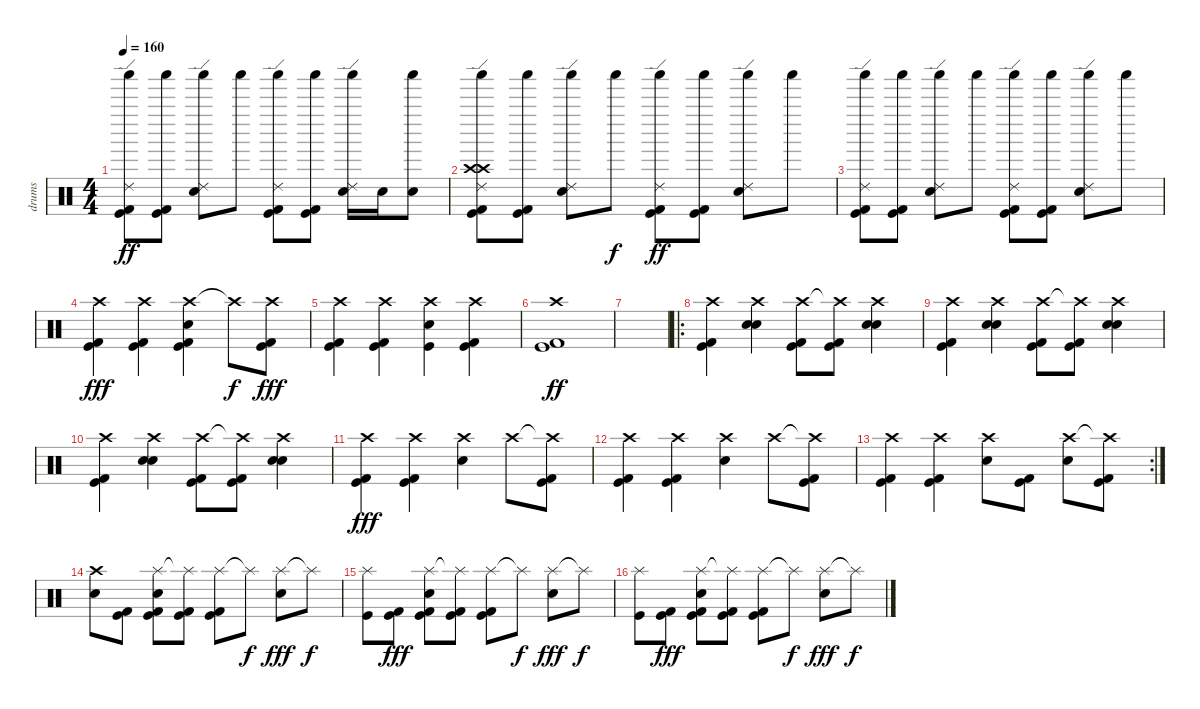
\track ("drums" "drums") {instrument percussion}
\staff {score}
\articulation defaults
\ts (4 4)
\tempo 160
\clef neutral
\ks c
("Shaker (hit)" "Kick (hit) 2" "Ride (edge) 2" "Kick (hit)").8{dy ff} ("Shaker (hit)" "Kick (hit) 2" "Kick (hit)").8 ("Shaker (hit)" "Ride (edge) 2" "Electric Snare (hit)").8 "Shaker (hit)".8 ("Shaker (hit)" "Kick (hit) 2" "Ride (edge) 2" "Kick (hit)").8 ("Shaker (hit)" "Kick (hit) 2" "Kick (hit)").8 ("Shaker (hit)" "Ride (edge) 2" "Electric Snare (hit)").16 "Electric Snare (hit)".16 ("Shaker (hit)" "Electric Snare (hit)").8 |
("Crash high (hit)" "Shaker (hit)" "Kick (hit) 2" "Ride (edge) 2" "Crash high (hit)" "Kick (hit)").8 ("Shaker (hit)" "Kick (hit) 2" "Kick (hit)").8 ("Shaker (hit)" "Ride (edge) 2" "Electric Snare (hit)").8 "Shaker (hit)".8{dy f} ("Shaker (hit)" "Kick (hit) 2" "Ride (edge) 2" "Kick (hit)").8{dy ff} ("Shaker (hit)" "Kick (hit) 2" "Kick (hit)").8 ("Shaker (hit)" "Ride (edge) 2" "Electric Snare (hit)").8 "Shaker (hit)".8 |
("Shaker (hit)" "Kick (hit) 2" "Ride (edge) 2" "Kick (hit)").8 ("Shaker (hit)" "Kick (hit) 2" "Kick (hit)").8 ("Shaker (hit)" "Ride (edge) 2" "Electric Snare (hit)").8 "Shaker (hit)".8 ("Shaker (hit)" "Kick (hit) 2" "Ride (edge) 2" "Kick (hit)").8 ("Shaker (hit)" "Kick (hit) 2" "Kick (hit)").8 ("Shaker (hit)" "Ride (edge) 2" "Electric Snare (hit)").8 "Shaker (hit)".8 |
("Crash high (hit)" "Kick (hit) 2" "Kick (hit)").4{dy fff} ("Crash high (hit)" "Kick (hit) 2" "Kick (hit)").4 ("Crash high (hit)" "Electric Snare (hit)" "Kick (hit) 2" "Kick (hit)").4 "Crash high (hit)"{t}.8{dy f} ("Crash high (hit)" "Kick (hit) 2" "Kick (hit)").8{dy fff} |
("Crash high (hit)" "Kick (hit) 2" "Kick (hit)").4 ("Crash high (hit)" "Kick (hit) 2" "Kick (hit)").4 ("Crash high (hit)" "Electric Snare (hit)" "Kick (hit)").4 ("Crash high (hit)" "Kick (hit) 2" "Kick (hit)").4 |
("Crash high (hit)" "Kick (hit) 2" "Kick (hit)").1{dy ff} |
|
\ro
("Crash high (hit)" "Kick (hit) 2" "Kick (hit)").4 ("Crash high (hit)" "Snare (hit) 2" "Electric Snare (hit)").4 ("Crash high (hit)" "Kick (hit) 2" "Kick (hit)").8 ("Crash high (hit)"{t} "Kick (hit) 2" "Kick (hit)").8 ("Crash high (hit)" "Snare (hit) 2" "Electric Snare (hit)").4 |
("Crash high (hit)" "Kick (hit) 2" "Kick (hit)").4 ("Crash high (hit)" "Snare (hit) 2" "Electric Snare (hit)").4 ("Crash high (hit)" "Kick (hit) 2" "Kick (hit)").8 ("Crash high (hit)"{t} "Kick (hit) 2" "Kick (hit)").8 ("Crash high (hit)" "Snare (hit) 2" "Electric Snare (hit)").4 |
("Crash high (hit)" "Kick (hit) 2" "Kick (hit)").4 ("Crash high (hit)" "Snare (hit) 2" "Electric Snare (hit)").4 ("Crash high (hit)" "Kick (hit) 2" "Kick (hit)").8 ("Crash high (hit)"{t} "Kick (hit) 2" "Kick (hit)").8 ("Crash high (hit)" "Snare (hit) 2" "Electric Snare (hit)").4 |
("Crash high (hit)" "Kick (hit) 2" "Kick (hit)").4{dy fff} ("Crash high (hit)" "Kick (hit) 2" "Kick (hit)").4 ("Crash high (hit)" "Electric Snare (hit)").4 "Crash high (hit)".8 ("Crash high (hit)"{t} "Kick (hit) 2" "Kick (hit)").8 |
("Crash high (hit)" "Kick (hit) 2" "Kick (hit)").4 ("Crash high (hit)" "Kick (hit) 2" "Kick (hit)").4 ("Crash high (hit)" "Electric Snare (hit)").4 "Crash high (hit)".8 ("Crash high (hit)"{t} "Kick (hit) 2" "Kick (hit)").8 |
\rc 2
("Crash high (hit)" "Kick (hit) 2" "Kick (hit)").4 ("Crash high (hit)" "Kick (hit) 2" "Kick (hit)").4 ("Crash high (hit)" "Electric Snare (hit)").8 ("Kick (hit) 2" "Kick (hit)").8 ("Crash high (hit)" "Electric Snare (hit)").8 ("Crash high (hit)"{t} "Kick (hit) 2" "Kick (hit)").8 |
("Crash high (hit)" "Electric Snare (hit)").8 ("Kick (hit) 2" "Kick (hit)").8 ("Splash (hit)" "Electric Snare (hit)" "Kick (hit) 2" "Kick (hit)").8 ("Splash (hit)"{t} "Kick (hit) 2" "Kick (hit)").8 ("Splash (hit)" "Kick (hit) 2" "Kick (hit)").8 "Splash (hit)"{t}.8{dy f} ("Splash (hit)" "Electric Snare (hit)").8{dy fff} "Splash (hit)"{t}.8{dy f} |
("Splash (hit)" "Kick (hit)").8 ("Kick (hit) 2" "Kick (hit)").8{dy fff} ("Splash (hit)" "Electric Snare (hit)" "Kick (hit) 2" "Kick (hit)").8 ("Splash (hit)"{t} "Kick (hit) 2" "Kick (hit)").8 ("Splash (hit)" "Kick (hit) 2" "Kick (hit)").8 "Splash (hit)"{t}.8{dy f} ("Splash (hit)" "Electric Snare (hit)").8{dy fff} "Splash (hit)"{t}.8{dy f} |
("Splash (hit)" "Kick (hit)").8 ("Kick (hit) 2" "Kick (hit)").8{dy fff} ("Splash (hit)" "Electric Snare (hit)" "Kick (hit) 2" "Kick (hit)").8 ("Splash (hit)"{t} "Kick (hit) 2" "Kick (hit)").8 ("Splash (hit)" "Kick (hit) 2" "Kick (hit)").8 "Splash (hit)"{t}.8{dy f} ("Splash (hit)" "Electric Snare (hit)").8{dy fff} "Splash (hit)"{t}.8{dy f}
